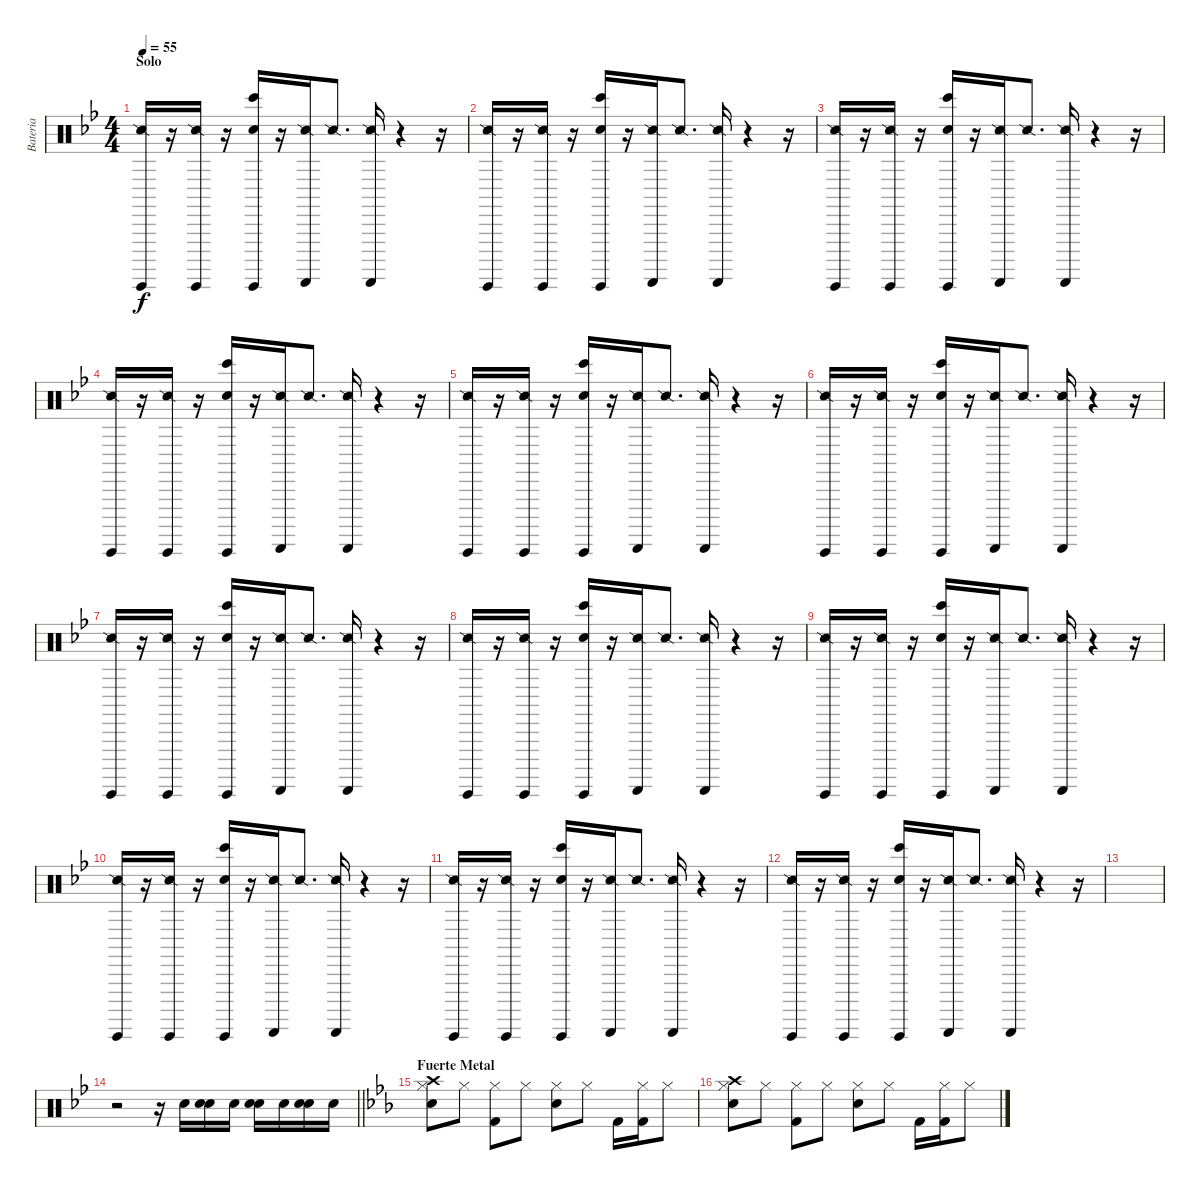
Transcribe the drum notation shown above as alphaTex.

\track ("Bateria" "Bateria") {instrument percussion}
\staff {score}
\articulation defaults
\ts (4 4)
\section ("" "Solo")
\tempo 55
\clef neutral
\ks bb
("Guiro (hit)" "Snare (side stick) 2").16{dy f} r.16 ("Guiro (hit)" "Snare (side stick) 2").16 r.16 ("Guiro (hit)" "Bongo High (hit)" "Hand Clap (hit)").16 r.16 ("Guiro (scrap-return)" "Snare (side stick) 2").16 "Snare (side stick) 2".8{d} ("Guiro (scrap-return)" "Snare (side stick) 2").16 r.4 r.16 |
("Guiro (hit)" "Snare (side stick) 2").16 r.16 ("Guiro (hit)" "Snare (side stick) 2").16 r.16 ("Guiro (hit)" "Bongo High (hit)" "Hand Clap (hit)").16 r.16 ("Guiro (scrap-return)" "Snare (side stick) 2").16 "Snare (side stick) 2".8{d} ("Guiro (scrap-return)" "Snare (side stick) 2").16 r.4 r.16 |
("Guiro (hit)" "Snare (side stick) 2").16 r.16 ("Guiro (hit)" "Snare (side stick) 2").16 r.16 ("Guiro (hit)" "Bongo High (hit)" "Hand Clap (hit)").16 r.16 ("Guiro (scrap-return)" "Snare (side stick) 2").16 "Snare (side stick) 2".8{d} ("Guiro (scrap-return)" "Snare (side stick) 2").16 r.4 r.16 |
("Guiro (hit)" "Snare (side stick) 2").16 r.16 ("Guiro (hit)" "Snare (side stick) 2").16 r.16 ("Guiro (hit)" "Bongo High (hit)" "Hand Clap (hit)").16 r.16 ("Guiro (scrap-return)" "Snare (side stick) 2").16 "Snare (side stick) 2".8{d} ("Guiro (scrap-return)" "Snare (side stick) 2").16 r.4 r.16 |
("Guiro (hit)" "Snare (side stick) 2").16 r.16 ("Guiro (hit)" "Snare (side stick) 2").16 r.16 ("Guiro (hit)" "Bongo High (hit)" "Hand Clap (hit)").16 r.16 ("Guiro (scrap-return)" "Snare (side stick) 2").16 "Snare (side stick) 2".8{d} ("Guiro (scrap-return)" "Snare (side stick) 2").16 r.4 r.16 |
("Guiro (hit)" "Snare (side stick) 2").16 r.16 ("Guiro (hit)" "Snare (side stick) 2").16 r.16 ("Guiro (hit)" "Bongo High (hit)" "Hand Clap (hit)").16 r.16 ("Guiro (scrap-return)" "Snare (side stick) 2").16 "Snare (side stick) 2".8{d} ("Guiro (scrap-return)" "Snare (side stick) 2").16 r.4 r.16 |
("Guiro (hit)" "Snare (side stick) 2").16 r.16 ("Guiro (hit)" "Snare (side stick) 2").16 r.16 ("Guiro (hit)" "Bongo High (hit)" "Hand Clap (hit)").16 r.16 ("Guiro (scrap-return)" "Snare (side stick) 2").16 "Snare (side stick) 2".8{d} ("Guiro (scrap-return)" "Snare (side stick) 2").16 r.4 r.16 |
("Guiro (hit)" "Snare (side stick) 2").16 r.16 ("Guiro (hit)" "Snare (side stick) 2").16 r.16 ("Guiro (hit)" "Bongo High (hit)" "Hand Clap (hit)").16 r.16 ("Guiro (scrap-return)" "Snare (side stick) 2").16 "Snare (side stick) 2".8{d} ("Guiro (scrap-return)" "Snare (side stick) 2").16 r.4 r.16 |
("Guiro (hit)" "Snare (side stick) 2").16 r.16 ("Guiro (hit)" "Snare (side stick) 2").16 r.16 ("Guiro (hit)" "Bongo High (hit)" "Hand Clap (hit)").16 r.16 ("Guiro (scrap-return)" "Snare (side stick) 2").16 "Snare (side stick) 2".8{d} ("Guiro (scrap-return)" "Snare (side stick) 2").16 r.4 r.16 |
("Guiro (hit)" "Snare (side stick) 2").16 r.16 ("Guiro (hit)" "Snare (side stick) 2").16 r.16 ("Guiro (hit)" "Bongo High (hit)" "Hand Clap (hit)").16 r.16 ("Guiro (scrap-return)" "Snare (side stick) 2").16 "Snare (side stick) 2".8{d} ("Guiro (scrap-return)" "Snare (side stick) 2").16 r.4 r.16 |
("Guiro (hit)" "Snare (side stick) 2").16 r.16 ("Guiro (hit)" "Snare (side stick) 2").16 r.16 ("Guiro (hit)" "Bongo High (hit)" "Hand Clap (hit)").16 r.16 ("Guiro (scrap-return)" "Snare (side stick) 2").16 "Snare (side stick) 2".8{d} ("Guiro (scrap-return)" "Snare (side stick) 2").16 r.4 r.16 |
("Guiro (hit)" "Snare (side stick) 2").16 r.16 ("Guiro (hit)" "Snare (side stick) 2").16 r.16 ("Guiro (hit)" "Bongo High (hit)" "Hand Clap (hit)").16 r.16 ("Guiro (scrap-return)" "Snare (side stick) 2").16 "Snare (side stick) 2".8{d} ("Guiro (scrap-return)" "Snare (side stick) 2").16 r.4 r.16 |
|
\barLineRight lightlight
r.2 r.16 "Snare (hit) 2".16 ("Snare (hit) 2" "Electric Snare (hit)").16 "Snare (hit) 2".16 ("Snare (hit) 2" "Electric Snare (hit)").16 "Snare (hit) 2".16 ("Snare (hit) 2" "Electric Snare (hit)").16 "Snare (hit) 2".16 |
\section ("" "Fuerte Metal")
\ks cminor
("Crash high (hit)" "Hi-Hat (closed)" "Snare (hit) 2").8 "Hi-Hat (closed)".8 ("Hi-Hat (closed)" "Kick (hit) 2").8 "Hi-Hat (closed)".8 ("Hi-Hat (closed)" "Snare (hit) 2").8 "Hi-Hat (closed)".8 "Kick (hit) 2".16 ("Hi-Hat (closed)" "Kick (hit) 2").16 "Hi-Hat (closed)".8 |
("Crash high (hit)" "Hi-Hat (closed)" "Snare (hit) 2").8 "Hi-Hat (closed)".8 ("Hi-Hat (closed)" "Kick (hit) 2").8 "Hi-Hat (closed)".8 ("Hi-Hat (closed)" "Snare (hit) 2").8 "Hi-Hat (closed)".8 "Kick (hit) 2".16 ("Hi-Hat (closed)" "Kick (hit) 2").16 "Hi-Hat (closed)".8
